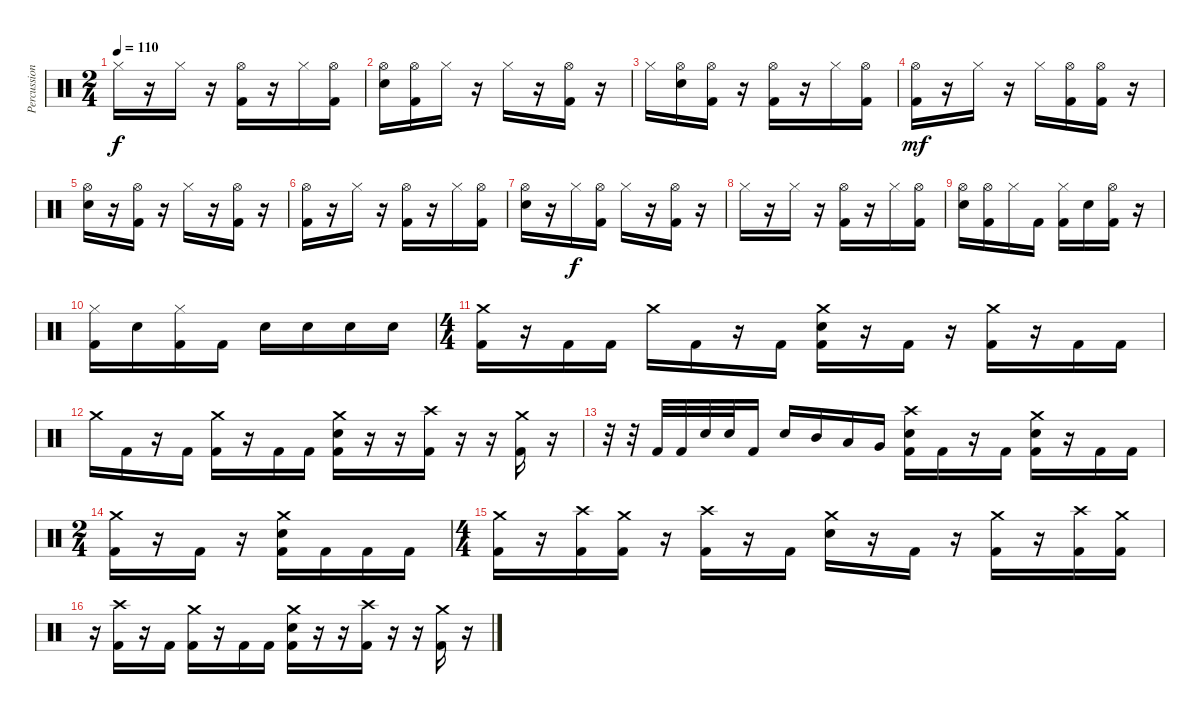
\track ("Percussion" "Percussion") {instrument percussion}
\staff {score}
\articulation defaults
\ts (2 4)
\tempo 110
\clef neutral
\ks c "Hi-Hat (closed)".16{dy f}
r.16 "Hi-Hat (closed)".16 r.16 ("Hi-Hat (open)" "Kick (hit) 2").16 r.16 "Hi-Hat (closed)".16 ("Hi-Hat (open)" "Kick (hit) 2").16 |
("Hi-Hat (open)" "Snare (hit) 2").16 ("Hi-Hat (open)" "Kick (hit) 2").16 "Hi-Hat (closed)".16 r.16 "Hi-Hat (closed)".16 r.16 ("Hi-Hat (open)" "Kick (hit) 2").16 r.16 |
"Hi-Hat (closed)".16 ("Hi-Hat (open)" "Snare (hit) 2").16 ("Hi-Hat (open)" "Kick (hit) 2").16 r.16 ("Hi-Hat (open)" "Kick (hit) 2").16 r.16 "Hi-Hat (closed)".16 ("Hi-Hat (open)" "Kick (hit) 2").16 |
("Hi-Hat (open)" "Kick (hit) 2").16{dy mf} r.16 "Hi-Hat (closed)".16 r.16 "Hi-Hat (closed)".16 ("Hi-Hat (open)" "Kick (hit) 2").16 ("Hi-Hat (open)" "Kick (hit) 2").16 r.16 |
("Hi-Hat (open)" "Snare (hit) 2").16 r.16 ("Hi-Hat (open)" "Kick (hit) 2").16 r.16 "Hi-Hat (closed)".16 r.16 ("Hi-Hat (open)" "Kick (hit) 2").16 r.16 |
("Hi-Hat (open)" "Kick (hit) 2").16 r.16 "Hi-Hat (closed)".16 r.16 ("Hi-Hat (open)" "Kick (hit) 2").16 r.16 "Hi-Hat (closed)".16 ("Hi-Hat (open)" "Kick (hit) 2").16 |
("Hi-Hat (open)" "Snare (hit) 2").16 r.16 "Hi-Hat (closed)".16{dy f} ("Hi-Hat (open)" "Kick (hit) 2").16 "Hi-Hat (closed)".16 r.16 ("Hi-Hat (open)" "Kick (hit) 2").16 r.16 |
"Hi-Hat (closed)".16 r.16 "Hi-Hat (closed)".16 r.16 ("Hi-Hat (open)" "Kick (hit) 2").16 r.16 "Hi-Hat (closed)".16 ("Hi-Hat (open)" "Kick (hit) 2").16 |
("Hi-Hat (open)" "Snare (hit) 2").16 ("Hi-Hat (open)" "Kick (hit) 2").16 "Hi-Hat (closed)".16 "Kick (hit) 2".16 ("Hi-Hat (closed)" "Kick (hit) 2").16 "Snare (hit) 2".16 ("Hi-Hat (open)" "Kick (hit) 2").16 r.16 |
("Hi-Hat (closed)" "Kick (hit) 2").16 "Snare (hit) 2".16 ("Hi-Hat (closed)" "Kick (hit) 2").16 "Kick (hit) 2".16 "Snare (hit) 2".16 "Snare (hit) 2".16 "Snare (hit) 2".16 "Snare (hit) 2".16 |
\ts (4 4)
("Crash medium (hit)" "Kick (hit) 2").16 r.16 "Kick (hit) 2".16 "Kick (hit) 2".16 "Crash medium (hit)".16 "Kick (hit) 2".16 r.16 "Kick (hit) 2".16 ("Crash medium (hit)" "Snare (hit) 2" "Kick (hit) 2").16 r.16 "Kick (hit) 2".16 r.16 ("Crash medium (hit)" "Kick (hit) 2").16 r.16 "Kick (hit) 2".16 "Kick (hit) 2".16 |
"Crash medium (hit)".16 "Kick (hit) 2".16 r.16 "Kick (hit) 2".16 ("Crash medium (hit)" "Kick (hit) 2").16 r.16 "Kick (hit) 2".16 "Kick (hit) 2".16 ("Crash medium (hit)" "Snare (hit) 2" "Kick (hit) 2").16 r.16 r.16 ("Crash high (hit)" "Kick (hit) 2").16 r.16 r.16 ("Crash medium (hit)" "Kick (hit) 2").16 r.16 |
r.32 r.32 "Kick (hit) 2".32 "Kick (hit) 2".32 "Snare (hit) 2".32 "Snare (hit) 2".32 "Kick (hit) 2".16 "Snare (hit) 2".16 "Mid Tom (hit)".16 "Low Tom (hit)".16 "Very Low Tom (hit)".16 ("Crash high (hit)" "Snare (hit) 2" "Kick (hit) 2").16 "Kick (hit) 2".16 r.16 "Kick (hit) 2".16 ("Crash medium (hit)" "Snare (hit) 2" "Kick (hit) 2").16 r.16 "Kick (hit) 2".16 "Kick (hit) 2".16 |
\ts (2 4)
("Crash medium (hit)" "Kick (hit) 2").16 r.16 "Kick (hit) 2".16 r.16 ("Crash medium (hit)" "Snare (hit) 2" "Kick (hit) 2").16 "Kick (hit) 2".16 "Kick (hit) 2".16 "Kick (hit) 2".16 |
\ts (4 4)
("Crash medium (hit)" "Kick (hit) 2").16 r.16 ("Crash high (hit)" "Kick (hit) 2").16 ("Crash medium (hit)" "Kick (hit) 2").16 r.16 ("Crash high (hit)" "Kick (hit) 2").16 r.16 "Kick (hit) 2".16 ("Crash medium (hit)" "Snare (hit) 2").16 r.16 "Kick (hit) 2".16 r.16 ("Crash medium (hit)" "Kick (hit) 2").16 r.16 ("Crash high (hit)" "Kick (hit) 2").16 ("Crash medium (hit)" "Kick (hit) 2").16 |
r.16 ("Crash high (hit)" "Kick (hit) 2").16 r.16 "Kick (hit) 2".16 ("Crash medium (hit)" "Kick (hit) 2").16 r.16 "Kick (hit) 2".16 "Kick (hit) 2".16 ("Crash medium (hit)" "Snare (hit) 2" "Kick (hit) 2").16 r.16 r.16 ("Crash high (hit)" "Kick (hit) 2").16 r.16 r.16 ("Crash medium (hit)" "Kick (hit) 2").16 r.16
